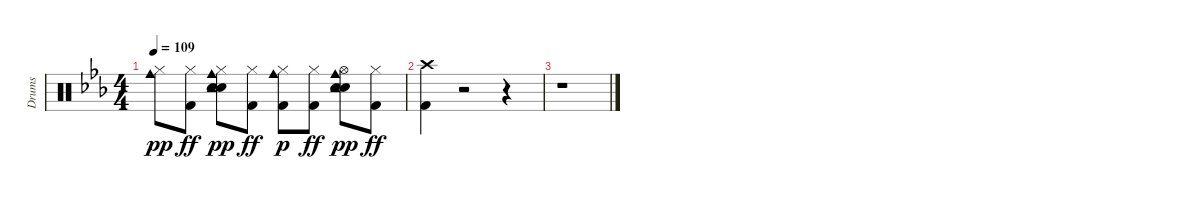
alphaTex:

\track ("Drums" "Drums") {instrument percussion}
\staff {score}
\articulation defaults
\ts (4 4)
\tempo 109
\clef neutral
\ks eb
("Hi-Hat (closed)" "Cowbell medium (hit)").8{dy pp} ("Kick (hit) 2" "Hi-Hat (closed)").8{dy ff} ("Hand Clap (hit)" "Electric Snare (hit)" "Hi-Hat (closed)" "Tambourine (hit)" "Cowbell medium (hit)").8{dy pp} ("Kick (hit) 2" "Hi-Hat (closed)").8{dy ff} ("Kick (hit) 2" "Hi-Hat (closed)" "Cowbell medium (hit)").8{dy p} ("Kick (hit) 2" "Hi-Hat (closed)").8{dy ff} ("Hand Clap (hit)" "Electric Snare (hit)" "Hi-Hat (open)" "Tambourine (hit)" "Cowbell medium (hit)").8{dy pp} ("Kick (hit) 2" "Hi-Hat (closed)").8{dy ff} |
("Kick (hit) 2" "Crash high (hit)").4 r.2 r.4 |
r.1
